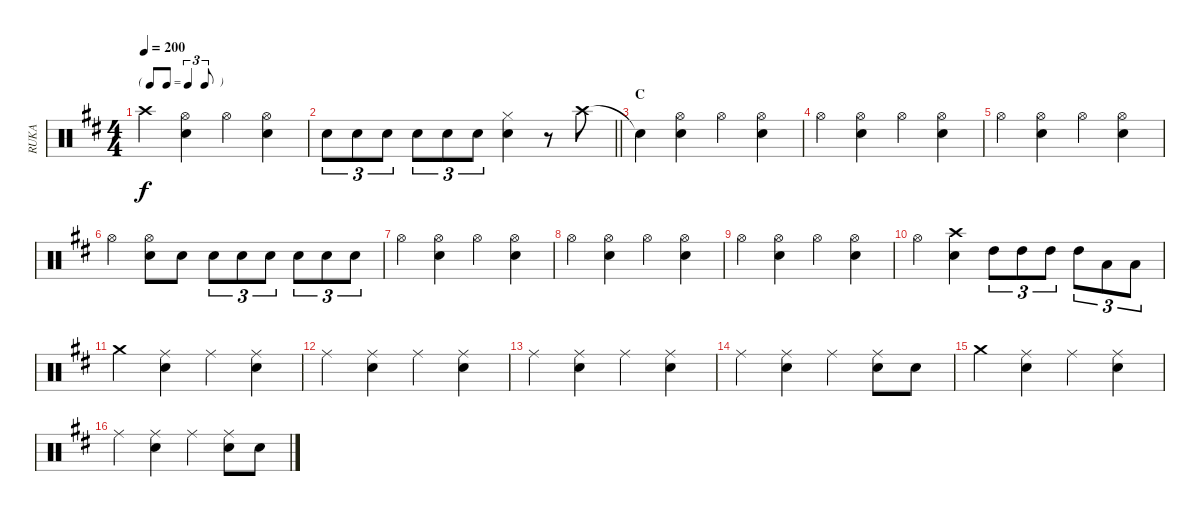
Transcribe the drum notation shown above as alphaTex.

\track ("RUKA" "RUKA") {instrument percussion}
\staff {score}
\articulation defaults
\ts (4 4)
\tf triplet8th
\tempo 200
\clef neutral
\ks d "Crash high (hit)".4{dy f}
("Hi-Hat (open)" "Snare (hit) 2").4 "Hi-Hat (open)".4 ("Hi-Hat (open)" "Snare (hit) 2").4 |
\barLineRight lightlight "Snare (hit) 2".8{tu (3 2)} "Snare (hit) 2".8{tu (3 2)} "Snare (hit) 2".8{tu (3 2)} "Snare (hit) 2".8{tu (3 2)} "Snare (hit) 2".8{tu (3 2)} "Snare (hit) 2".8{tu (3 2)}
("Hi-Hat (closed)" "Snare (hit) 2").4 r.8 "Crash high (hit)".8 |
\section ("" "C")
"Snare (hit)"{t}.4 ("Hi-Hat (open)" "Snare (hit) 2").4 "Hi-Hat (open)".4 ("Hi-Hat (open)" "Snare (hit) 2").4 |
"Hi-Hat (open)".4 ("Hi-Hat (open)" "Snare (hit) 2").4 "Hi-Hat (open)".4 ("Hi-Hat (open)" "Snare (hit) 2").4 |
"Hi-Hat (open)".4 ("Hi-Hat (open)" "Snare (hit) 2").4 "Hi-Hat (open)".4 ("Hi-Hat (open)" "Snare (hit) 2").4 |
"Hi-Hat (open)".4 ("Hi-Hat (open)" "Snare (hit) 2").8 "Snare (hit) 2".8 "Snare (hit) 2".8{tu (3 2)} "Snare (hit) 2".8{tu (3 2)} "Snare (hit) 2".8{tu (3 2)} "Snare (hit) 2".8{tu (3 2)} "Snare (hit) 2".8{tu (3 2)} "Snare (hit) 2".8{tu (3 2)} |
"Hi-Hat (open)".4 ("Hi-Hat (open)" "Snare (hit) 2").4 "Hi-Hat (open)".4 ("Hi-Hat (open)" "Snare (hit) 2").4 |
"Hi-Hat (open)".4 ("Hi-Hat (open)" "Snare (hit) 2").4 "Hi-Hat (open)".4 ("Hi-Hat (open)" "Snare (hit) 2").4 |
"Hi-Hat (open)".4 ("Hi-Hat (open)" "Snare (hit) 2").4 "Hi-Hat (open)".4 ("Hi-Hat (open)" "Snare (hit) 2").4 |
"Hi-Hat (open)".4 ("Crash high (hit)" "Snare (hit) 2").4 "High Tom (hit)".8{tu (3 2)} "High Tom (hit)".8{tu (3 2)} "High Tom (hit)".8{tu (3 2)} "High Tom (hit)".8{tu (3 2)} "Low Tom (hit)".8{tu (3 2)} "Low Tom (hit)".8{tu (3 2)} |
"Crash medium (hit)".4 ("Ride (middle)" "Snare (hit) 2").4 "Ride (middle)".4 ("Ride (middle)" "Snare (hit) 2").4 |
"Ride (middle)".4 ("Ride (middle)" "Snare (hit) 2").4 "Ride (middle)".4 ("Ride (middle)" "Snare (hit) 2").4 |
"Ride (middle)".4 ("Ride (middle)" "Snare (hit) 2").4 "Ride (middle)".4 ("Ride (middle)" "Snare (hit) 2").4 |
"Ride (middle)".4 ("Ride (middle)" "Snare (hit) 2").4 "Ride (middle)".4 ("Ride (middle)" "Snare (hit) 2").8 "Snare (hit) 2".8 |
"Crash medium (hit)".4 ("Ride (middle)" "Snare (hit) 2").4 "Ride (middle)".4 ("Ride (middle)" "Snare (hit) 2").4 |
"Ride (middle)".4 ("Ride (middle)" "Snare (hit) 2").4 "Ride (middle)".4 ("Ride (middle)" "Snare (hit) 2").8 "Snare (hit) 2".8
